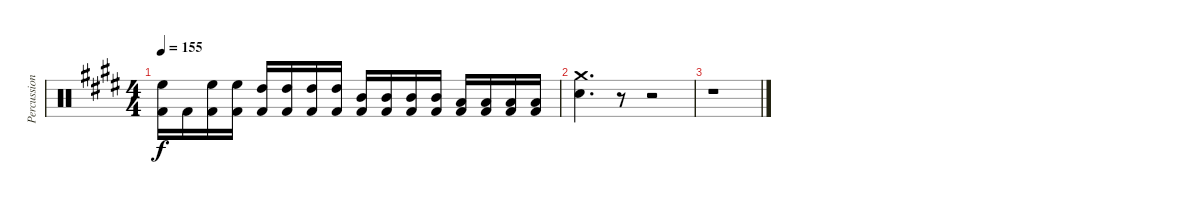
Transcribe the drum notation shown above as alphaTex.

\track ("Percussion (Thomen Stauch)" "Percussion") {instrument percussion}
\staff {score}
\articulation defaults
\ts (4 4)
\tempo 155
\clef neutral
\ks c#minor
("High Floor Tom (hit)" "Kick (hit) 2").16{dy f} "Kick (hit) 2".16 ("High Floor Tom (hit)" "Kick (hit) 2").16 ("High Floor Tom (hit)" "Kick (hit) 2").16 ("High Tom (hit)" "Kick (hit) 2").16 ("High Tom (hit)" "Kick (hit) 2").16 ("High Tom (hit)" "Kick (hit) 2").16 ("High Tom (hit)" "Kick (hit) 2").16 ("Mid Tom (hit)" "Kick (hit) 2").16 ("Mid Tom (hit)" "Kick (hit) 2").16 ("Mid Tom (hit)" "Kick (hit) 2").16 ("Mid Tom (hit)" "Kick (hit) 2").16 ("Low Tom (hit)" "Kick (hit) 2").16 ("Low Tom (hit)" "Kick (hit) 2").16 ("Low Tom (hit)" "Kick (hit) 2").16 ("Low Tom (hit)" "Kick (hit) 2").16 |
("Crash medium (hit)" "Snare (hit) 2").4{d} r.8{volume 0} r.2 |
r.1
